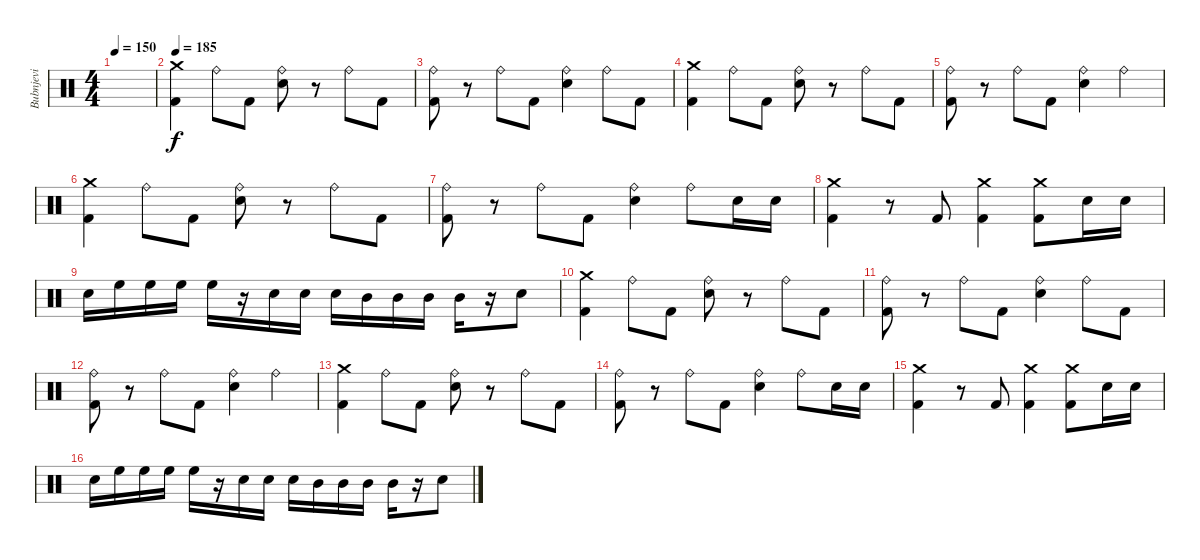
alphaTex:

\track ("Bubnjevi" "Bubnjevi") {instrument percussion}
\staff {score}
\articulation defaults
\ts (4 4)
\tempo 150
\clef neutral
\ks c
|
\tempo 185
("Crash medium (hit)" "Kick (hit) 2").4 "Ride (bell)".8 "Kick (hit) 2".8 ("Ride (bell)" "Snare (hit) 2").8 r.8 "Ride (bell)".8 "Kick (hit) 2".8 |
("Ride (bell)" "Kick (hit) 2").8 r.8 "Ride (bell)".8 "Kick (hit) 2".8 ("Ride (bell)" "Snare (hit) 2").4 "Ride (bell)".8 "Kick (hit) 2".8 |
("Crash medium (hit)" "Kick (hit) 2").4 "Ride (bell)".8 "Kick (hit) 2".8 ("Ride (bell)" "Snare (hit) 2").8 r.8 "Ride (bell)".8 "Kick (hit) 2".8 |
("Ride (bell)" "Kick (hit) 2").8 r.8 "Ride (bell)".8 "Kick (hit) 2".8 ("Ride (bell)" "Snare (hit) 2").4 "Ride (bell)".4 |
("Crash medium (hit)" "Kick (hit) 2").4 "Ride (bell)".8 "Kick (hit) 2".8 ("Ride (bell)" "Snare (hit) 2").8 r.8 "Ride (bell)".8 "Kick (hit) 2".8 |
("Ride (bell)" "Kick (hit) 2").8 r.8 "Ride (bell)".8 "Kick (hit) 2".8 ("Ride (bell)" "Snare (hit) 2").4 "Ride (bell)".8 "Snare (hit) 2".16 "Snare (hit) 2".16 |
("Crash medium (hit)" "Kick (hit) 2").4 r.8 "Kick (hit) 2".8 ("Crash medium (hit)" "Kick (hit) 2").4 ("Crash medium (hit)" "Kick (hit) 2").8 "Snare (hit) 2".16 "Snare (hit) 2".16 |
"Snare (hit) 2".16 "High Floor Tom (hit)".16 "High Floor Tom (hit)".16 "High Floor Tom (hit)".16 "High Floor Tom (hit)".16 r.16 "Snare (hit) 2".16 "Snare (hit) 2".16 "Snare (hit) 2".16 "Mid Tom (hit)".16 "Mid Tom (hit)".16 "Mid Tom (hit)".16 "Mid Tom (hit)".16 r.16 "Snare (hit) 2".8 |
("Crash medium (hit)" "Kick (hit) 2").4 "Ride (bell)".8 "Kick (hit) 2".8 ("Ride (bell)" "Snare (hit) 2").8 r.8 "Ride (bell)".8 "Kick (hit) 2".8 |
("Ride (bell)" "Kick (hit) 2").8 r.8 "Ride (bell)".8 "Kick (hit) 2".8 ("Ride (bell)" "Snare (hit) 2").4 "Ride (bell)".8 "Kick (hit) 2".8 |
("Ride (bell)" "Kick (hit) 2").8 r.8 "Ride (bell)".8 "Kick (hit) 2".8 ("Ride (bell)" "Snare (hit) 2").4 "Ride (bell)".4 |
("Crash medium (hit)" "Kick (hit) 2").4 "Ride (bell)".8 "Kick (hit) 2".8 ("Ride (bell)" "Snare (hit) 2").8 r.8 "Ride (bell)".8 "Kick (hit) 2".8 |
("Ride (bell)" "Kick (hit) 2").8 r.8 "Ride (bell)".8 "Kick (hit) 2".8 ("Ride (bell)" "Snare (hit) 2").4 "Ride (bell)".8 "Snare (hit) 2".16 "Snare (hit) 2".16 |
("Crash medium (hit)" "Kick (hit) 2").4 r.8 "Kick (hit) 2".8 ("Crash medium (hit)" "Kick (hit) 2").4 ("Crash medium (hit)" "Kick (hit) 2").8 "Snare (hit) 2".16 "Snare (hit) 2".16 |
"Snare (hit) 2".16 "High Floor Tom (hit)".16 "High Floor Tom (hit)".16 "High Floor Tom (hit)".16 "High Floor Tom (hit)".16 r.16 "Snare (hit) 2".16 "Snare (hit) 2".16 "Snare (hit) 2".16 "Mid Tom (hit)".16 "Mid Tom (hit)".16 "Mid Tom (hit)".16 "Mid Tom (hit)".16 r.16 "Snare (hit) 2".8
